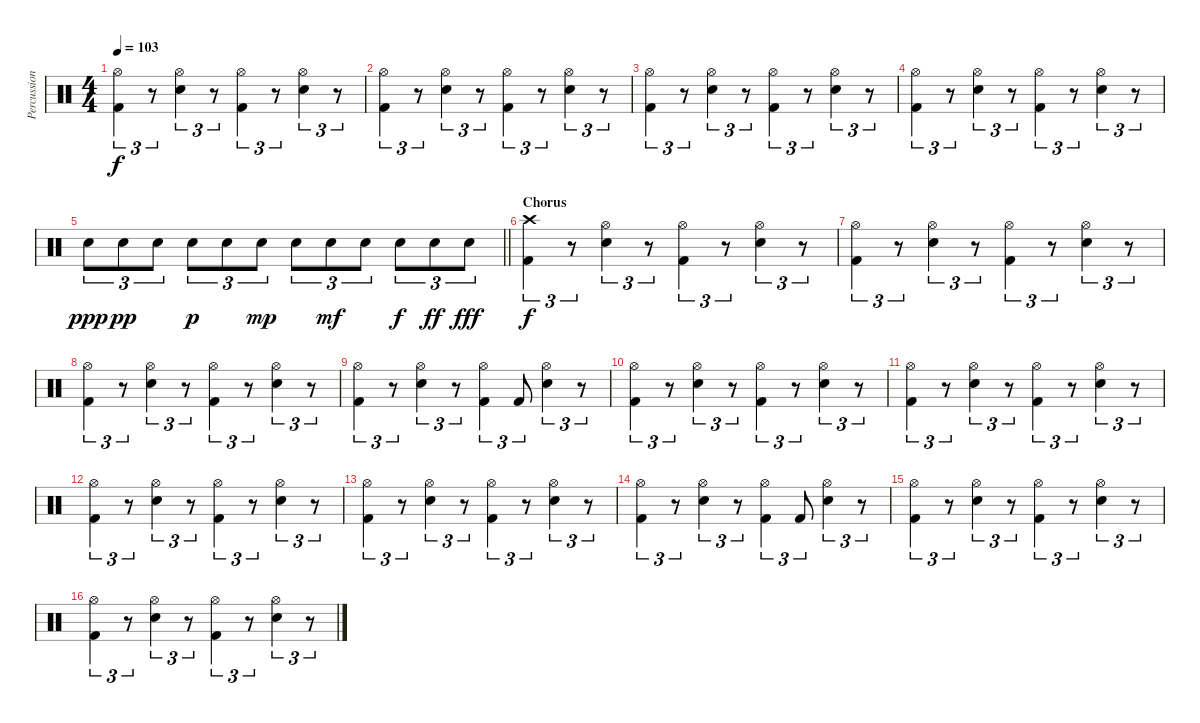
\track ("Percussion" "Percussion") {instrument percussion}
\staff {score}
\articulation defaults
\ts (4 4)
\tempo 103
\clef neutral
\ks c
("Hi-Hat (open)" "Kick (hit) 2").4{tu (3 2) dy f} r.8{tu (3 2)} ("Hi-Hat (open)" "Electric Snare (hit)").4{tu (3 2)} r.8{tu (3 2)} ("Hi-Hat (open)" "Kick (hit) 2").4{tu (3 2)} r.8{tu (3 2)} ("Hi-Hat (open)" "Electric Snare (hit)").4{tu (3 2)} r.8{tu (3 2)} |
("Hi-Hat (open)" "Kick (hit) 2").4{tu (3 2)} r.8{tu (3 2)} ("Hi-Hat (open)" "Electric Snare (hit)").4{tu (3 2)} r.8{tu (3 2)} ("Hi-Hat (open)" "Kick (hit) 2").4{tu (3 2)} r.8{tu (3 2)} ("Hi-Hat (open)" "Electric Snare (hit)").4{tu (3 2)} r.8{tu (3 2)} |
("Hi-Hat (open)" "Kick (hit) 2").4{tu (3 2)} r.8{tu (3 2)} ("Hi-Hat (open)" "Electric Snare (hit)").4{tu (3 2)} r.8{tu (3 2)} ("Hi-Hat (open)" "Kick (hit) 2").4{tu (3 2)} r.8{tu (3 2)} ("Hi-Hat (open)" "Electric Snare (hit)").4{tu (3 2)} r.8{tu (3 2)} |
("Hi-Hat (open)" "Kick (hit) 2").4{tu (3 2)} r.8{tu (3 2)} ("Hi-Hat (open)" "Electric Snare (hit)").4{tu (3 2)} r.8{tu (3 2)} ("Hi-Hat (open)" "Kick (hit) 2").4{tu (3 2)} r.8{tu (3 2)} ("Hi-Hat (open)" "Electric Snare (hit)").4{tu (3 2)} r.8{tu (3 2)} |
\barLineRight lightlight "Electric Snare (hit)".8{tu (3 2) dy ppp} "Electric Snare (hit)".8{tu (3 2) dy pp} "Electric Snare (hit)".8{tu (3 2)} "Electric Snare (hit)".8{tu (3 2) dy p} "Electric Snare (hit)".8{tu (3 2)} "Electric Snare (hit)".8{tu (3 2) dy mp} "Electric Snare (hit)".8{tu (3 2)} "Electric Snare (hit)".8{tu (3 2) dy mf} "Electric Snare (hit)".8{tu (3 2)} "Electric Snare (hit)".8{tu (3 2) dy f} "Electric Snare (hit)".8{tu (3 2) dy ff} "Electric Snare (hit)".8{tu (3 2) dy fff}
|
\section ("" "Chorus")
("Crash high (hit)" "Kick (hit) 2").4{tu (3 2) dy f} r.8{tu (3 2)} ("Hi-Hat (open)" "Electric Snare (hit)").4{tu (3 2)} r.8{tu (3 2)} ("Hi-Hat (open)" "Kick (hit) 2").4{tu (3 2)} r.8{tu (3 2)} ("Hi-Hat (open)" "Electric Snare (hit)").4{tu (3 2)} r.8{tu (3 2)} |
("Hi-Hat (open)" "Kick (hit) 2").4{tu (3 2)} r.8{tu (3 2)} ("Hi-Hat (open)" "Electric Snare (hit)").4{tu (3 2)} r.8{tu (3 2)} ("Hi-Hat (open)" "Kick (hit) 2").4{tu (3 2)} r.8{tu (3 2)} ("Hi-Hat (open)" "Electric Snare (hit)").4{tu (3 2)} r.8{tu (3 2)} |
("Hi-Hat (open)" "Kick (hit) 2").4{tu (3 2)} r.8{tu (3 2)} ("Hi-Hat (open)" "Electric Snare (hit)").4{tu (3 2)} r.8{tu (3 2)} ("Hi-Hat (open)" "Kick (hit) 2").4{tu (3 2)} r.8{tu (3 2)} ("Hi-Hat (open)" "Electric Snare (hit)").4{tu (3 2)} r.8{tu (3 2)} |
("Hi-Hat (open)" "Kick (hit) 2").4{tu (3 2)} r.8{tu (3 2)} ("Hi-Hat (open)" "Electric Snare (hit)").4{tu (3 2)} r.8{tu (3 2)} ("Hi-Hat (open)" "Kick (hit) 2").4{tu (3 2)} "Kick (hit) 2".8{tu (3 2)} ("Hi-Hat (open)" "Electric Snare (hit)").4{tu (3 2)} r.8{tu (3 2)} |
("Hi-Hat (open)" "Kick (hit) 2").4{tu (3 2)} r.8{tu (3 2)} ("Hi-Hat (open)" "Electric Snare (hit)").4{tu (3 2)} r.8{tu (3 2)} ("Hi-Hat (open)" "Kick (hit) 2").4{tu (3 2)} r.8{tu (3 2)} ("Hi-Hat (open)" "Electric Snare (hit)").4{tu (3 2)} r.8{tu (3 2)} |
("Hi-Hat (open)" "Kick (hit) 2").4{tu (3 2)} r.8{tu (3 2)} ("Hi-Hat (open)" "Electric Snare (hit)").4{tu (3 2)} r.8{tu (3 2)} ("Hi-Hat (open)" "Kick (hit) 2").4{tu (3 2)} r.8{tu (3 2)} ("Hi-Hat (open)" "Electric Snare (hit)").4{tu (3 2)} r.8{tu (3 2)} |
("Hi-Hat (open)" "Kick (hit) 2").4{tu (3 2)} r.8{tu (3 2)} ("Hi-Hat (open)" "Electric Snare (hit)").4{tu (3 2)} r.8{tu (3 2)} ("Hi-Hat (open)" "Kick (hit) 2").4{tu (3 2)} r.8{tu (3 2)} ("Hi-Hat (open)" "Electric Snare (hit)").4{tu (3 2)} r.8{tu (3 2)} |
("Hi-Hat (open)" "Kick (hit) 2").4{tu (3 2)} r.8{tu (3 2)} ("Hi-Hat (open)" "Electric Snare (hit)").4{tu (3 2)} r.8{tu (3 2)} ("Hi-Hat (open)" "Kick (hit) 2").4{tu (3 2)} r.8{tu (3 2)} ("Hi-Hat (open)" "Electric Snare (hit)").4{tu (3 2)} r.8{tu (3 2)} |
("Hi-Hat (open)" "Kick (hit) 2").4{tu (3 2)} r.8{tu (3 2)} ("Hi-Hat (open)" "Electric Snare (hit)").4{tu (3 2)} r.8{tu (3 2)} ("Hi-Hat (open)" "Kick (hit) 2").4{tu (3 2)} "Kick (hit) 2".8{tu (3 2)} ("Hi-Hat (open)" "Electric Snare (hit)").4{tu (3 2)} r.8{tu (3 2)} |
("Hi-Hat (open)" "Kick (hit) 2").4{tu (3 2)} r.8{tu (3 2)} ("Hi-Hat (open)" "Electric Snare (hit)").4{tu (3 2)} r.8{tu (3 2)} ("Hi-Hat (open)" "Kick (hit) 2").4{tu (3 2)} r.8{tu (3 2)} ("Hi-Hat (open)" "Electric Snare (hit)").4{tu (3 2)} r.8{tu (3 2)} |
("Hi-Hat (open)" "Kick (hit) 2").4{tu (3 2)} r.8{tu (3 2)} ("Hi-Hat (open)" "Electric Snare (hit)").4{tu (3 2)} r.8{tu (3 2)} ("Hi-Hat (open)" "Kick (hit) 2").4{tu (3 2)} r.8{tu (3 2)} ("Hi-Hat (open)" "Electric Snare (hit)").4{tu (3 2)} r.8{tu (3 2)}
